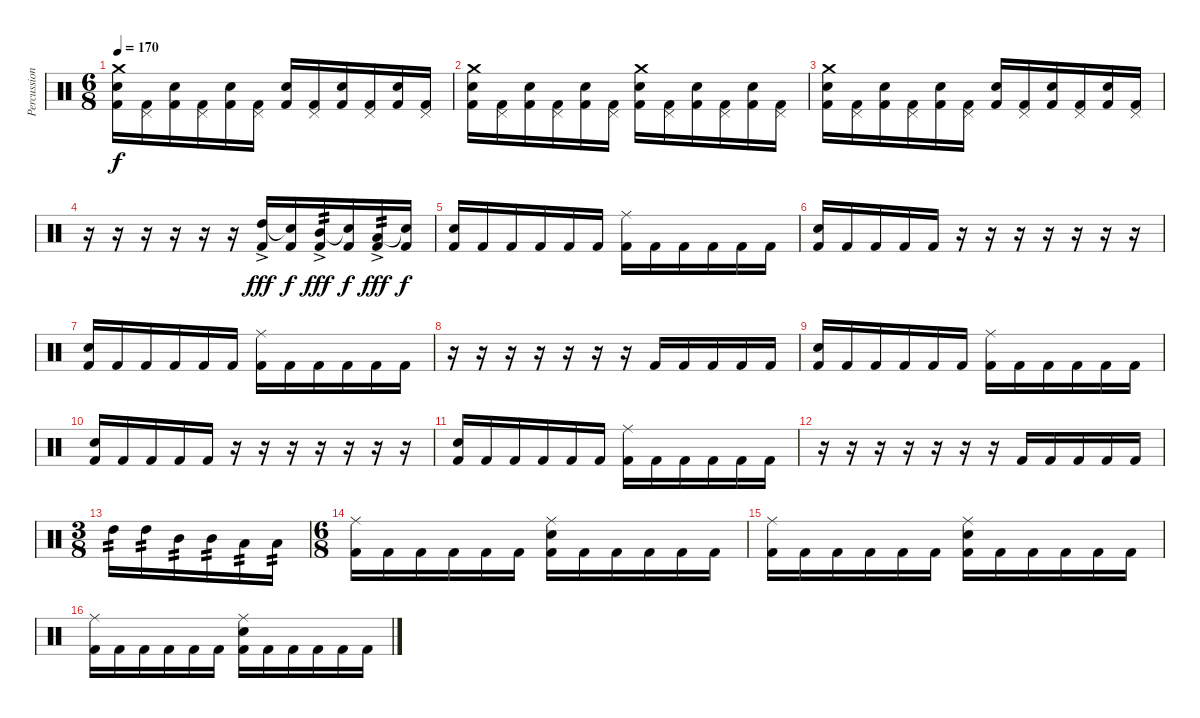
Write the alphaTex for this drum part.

\track ("Percussions" "Percussion") {instrument percussion}
\staff {score}
\articulation defaults
\ts (6 8)
\tempo 170
\clef neutral
\ks c
("Crash medium (hit)" "Snare (hit) 2" "Kick (hit) 2").16{dy f} ("Pedal Hi-Hat (hit)" "Kick (hit) 2").16 ("Snare (hit) 2" "Kick (hit) 2").16 ("Pedal Hi-Hat (hit)" "Kick (hit) 2").16 ("Snare (hit) 2" "Kick (hit) 2").16 ("Pedal Hi-Hat (hit)" "Kick (hit) 2").16 ("Snare (hit) 2" "Kick (hit) 2").16 ("Pedal Hi-Hat (hit)" "Kick (hit) 2").16 ("Snare (hit) 2" "Kick (hit) 2").16 ("Pedal Hi-Hat (hit)" "Kick (hit) 2").16 ("Snare (hit) 2" "Kick (hit) 2").16 ("Pedal Hi-Hat (hit)" "Kick (hit) 2").16 |
("Crash medium (hit)" "Snare (hit) 2" "Kick (hit) 2").16 ("Pedal Hi-Hat (hit)" "Kick (hit) 2").16 ("Snare (hit) 2" "Kick (hit) 2").16 ("Pedal Hi-Hat (hit)" "Kick (hit) 2").16 ("Snare (hit) 2" "Kick (hit) 2").16 ("Pedal Hi-Hat (hit)" "Kick (hit) 2").16 ("Crash medium (hit)" "Snare (hit) 2" "Kick (hit) 2").16 ("Pedal Hi-Hat (hit)" "Kick (hit) 2").16 ("Snare (hit) 2" "Kick (hit) 2").16 ("Pedal Hi-Hat (hit)" "Kick (hit) 2").16 ("Snare (hit) 2" "Kick (hit) 2").16 ("Pedal Hi-Hat (hit)" "Kick (hit) 2").16 |
("Crash medium (hit)" "Snare (hit) 2" "Kick (hit) 2").16 ("Pedal Hi-Hat (hit)" "Kick (hit) 2").16 ("Snare (hit) 2" "Kick (hit) 2").16 ("Pedal Hi-Hat (hit)" "Kick (hit) 2").16 ("Snare (hit) 2" "Kick (hit) 2").16 ("Pedal Hi-Hat (hit)" "Kick (hit) 2").16 ("Snare (hit) 2" "Kick (hit) 2").16 ("Pedal Hi-Hat (hit)" "Kick (hit) 2").16 ("Snare (hit) 2" "Kick (hit) 2").16 ("Pedal Hi-Hat (hit)" "Kick (hit) 2").16 ("Snare (hit) 2" "Kick (hit) 2").16 ("Pedal Hi-Hat (hit)" "Kick (hit) 2").16 |
r.16 r.16 r.16 r.16 r.16 r.16 ("High Tom (hit)"{ac} "Kick (hit) 2").16{dy fff} ("Snare (hit)"{t} "Kick (hit) 2").16{dy f} ("Mid Tom (hit)"{ac} "Kick (hit) 2").16{tp 2 dy fff} ("Snare (hit)"{t} "Kick (hit) 2").16{dy f} ("Low Tom (hit)"{ac} "Kick (hit) 2").16{tp 2 dy fff} ("Snare (hit)"{t} "Kick (hit) 2").16{dy f} |
("Snare (hit) 2" "Kick (hit) 2").16 "Kick (hit) 2".16 "Kick (hit) 2".16 "Kick (hit) 2".16 "Kick (hit) 2".16 "Kick (hit) 2".16 ("Ride (middle)" "Kick (hit) 2").16 "Kick (hit) 2".16 "Kick (hit) 2".16 "Kick (hit) 2".16 "Kick (hit) 2".16 "Kick (hit) 2".16 |
("Snare (hit) 2" "Kick (hit) 2").16 "Kick (hit) 2".16 "Kick (hit) 2".16 "Kick (hit) 2".16 "Kick (hit) 2".16 r.16 r.16 r.16 r.16 r.16 r.16 r.16 |
("Snare (hit) 2" "Kick (hit) 2").16 "Kick (hit) 2".16 "Kick (hit) 2".16 "Kick (hit) 2".16 "Kick (hit) 2".16 "Kick (hit) 2".16 ("Ride (middle)" "Kick (hit) 2").16 "Kick (hit) 2".16 "Kick (hit) 2".16 "Kick (hit) 2".16 "Kick (hit) 2".16 "Kick (hit) 2".16 |
r.16 r.16 r.16 r.16 r.16 r.16 r.16 "Kick (hit) 2".16 "Kick (hit) 2".16 "Kick (hit) 2".16 "Kick (hit) 2".16 "Kick (hit) 2".16 |
("Snare (hit) 2" "Kick (hit) 2").16 "Kick (hit) 2".16 "Kick (hit) 2".16 "Kick (hit) 2".16 "Kick (hit) 2".16 "Kick (hit) 2".16 ("Ride (middle)" "Kick (hit) 2").16 "Kick (hit) 2".16 "Kick (hit) 2".16 "Kick (hit) 2".16 "Kick (hit) 2".16 "Kick (hit) 2".16 |
("Snare (hit) 2" "Kick (hit) 2").16 "Kick (hit) 2".16 "Kick (hit) 2".16 "Kick (hit) 2".16 "Kick (hit) 2".16 r.16 r.16 r.16 r.16 r.16 r.16 r.16 |
("Snare (hit) 2" "Kick (hit) 2").16 "Kick (hit) 2".16 "Kick (hit) 2".16 "Kick (hit) 2".16 "Kick (hit) 2".16 "Kick (hit) 2".16 ("Ride (middle)" "Kick (hit) 2").16 "Kick (hit) 2".16 "Kick (hit) 2".16 "Kick (hit) 2".16 "Kick (hit) 2".16 "Kick (hit) 2".16 |
r.16 r.16 r.16 r.16 r.16 r.16 r.16 "Kick (hit) 2".16 "Kick (hit) 2".16 "Kick (hit) 2".16 "Kick (hit) 2".16 "Kick (hit) 2".16 |
\ts (3 8)
"High Tom (hit)".16{tp 2} "High Tom (hit)".16{tp 2} "Mid Tom (hit)".16{tp 2} "Mid Tom (hit)".16{tp 2} "Low Tom (hit)".16{tp 2} "Low Tom (hit)".16{tp 2} |
\ts (6 8)
("Ride (middle)" "Kick (hit) 2").16 "Kick (hit) 2".16 "Kick (hit) 2".16 "Kick (hit) 2".16 "Kick (hit) 2".16 "Kick (hit) 2".16 ("Snare (hit) 2" "Ride (middle)" "Kick (hit) 2").16 "Kick (hit) 2".16 "Kick (hit) 2".16 "Kick (hit) 2".16 "Kick (hit) 2".16 "Kick (hit) 2".16 |
("Ride (middle)" "Kick (hit) 2").16 "Kick (hit) 2".16 "Kick (hit) 2".16 "Kick (hit) 2".16 "Kick (hit) 2".16 "Kick (hit) 2".16 ("Snare (hit) 2" "Ride (middle)" "Kick (hit) 2").16 "Kick (hit) 2".16 "Kick (hit) 2".16 "Kick (hit) 2".16 "Kick (hit) 2".16 "Kick (hit) 2".16 |
("Ride (middle)" "Kick (hit) 2").16 "Kick (hit) 2".16 "Kick (hit) 2".16 "Kick (hit) 2".16 "Kick (hit) 2".16 "Kick (hit) 2".16 ("Snare (hit) 2" "Ride (middle)" "Kick (hit) 2").16 "Kick (hit) 2".16 "Kick (hit) 2".16 "Kick (hit) 2".16 "Kick (hit) 2".16 "Kick (hit) 2".16
